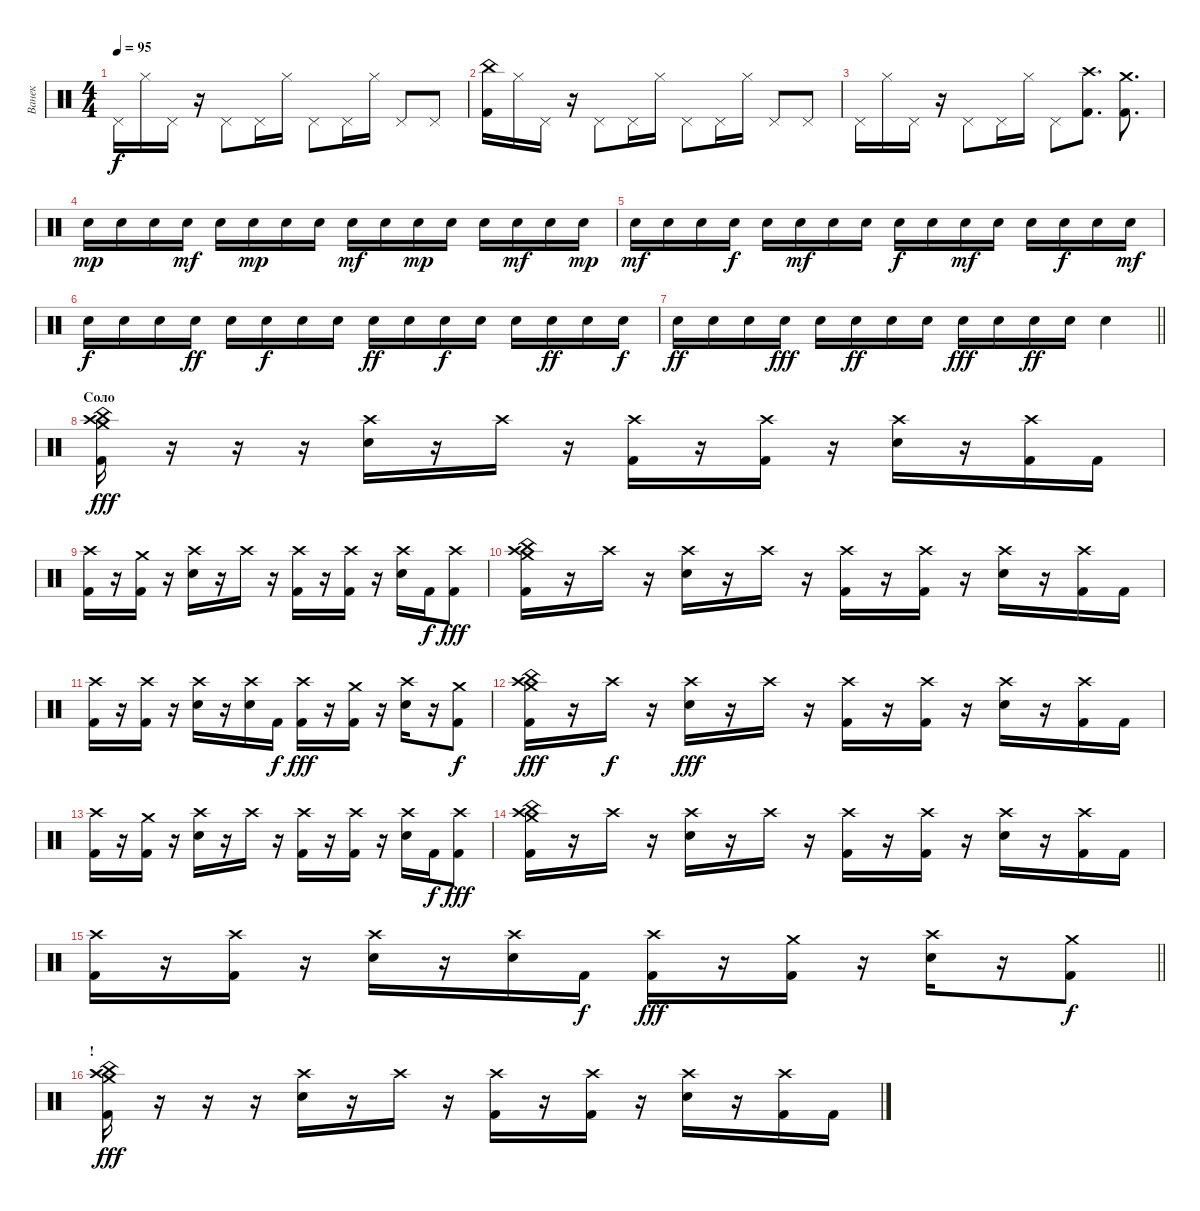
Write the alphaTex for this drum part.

\track ("Ванек" "Ванек") {instrument percussion}
\staff {score}
\articulation defaults
\ts (4 4)
\tempo 95
\clef neutral
\ks c "Pedal Hi-Hat (hit)".16{dy f} "Hi-Hat (closed)".16 "Pedal Hi-Hat (hit)".16
r.16 "Pedal Hi-Hat (hit)".8 "Pedal Hi-Hat (hit)".16 "Hi-Hat (closed)".16 "Pedal Hi-Hat (hit)".8 "Pedal Hi-Hat (hit)".16 "Hi-Hat (closed)".16 "Pedal Hi-Hat (hit)".8 "Pedal Hi-Hat (hit)".8 |
("China (hit)" "Kick (hit) 2").16 "Hi-Hat (closed)".16 "Pedal Hi-Hat (hit)".16 r.16 "Pedal Hi-Hat (hit)".8 "Pedal Hi-Hat (hit)".16 "Hi-Hat (closed)".16 "Pedal Hi-Hat (hit)".8 "Pedal Hi-Hat (hit)".16 "Hi-Hat (closed)".16 "Pedal Hi-Hat (hit)".8 "Pedal Hi-Hat (hit)".8 |
"Pedal Hi-Hat (hit)".16 "Hi-Hat (closed)".16 "Pedal Hi-Hat (hit)".16 r.16 "Pedal Hi-Hat (hit)".8 "Pedal Hi-Hat (hit)".16 "Hi-Hat (closed)".16 "Pedal Hi-Hat (hit)".8 ("Crash high (hit)" "Kick (hit) 2").8{d} ("Crash medium (hit)" "Kick (hit) 2").8{d} |
"Snare (hit) 2".16{dy mp} "Snare (hit) 2".16 "Snare (hit) 2".16 "Snare (hit) 2".16{dy mf} "Snare (hit) 2".16 "Snare (hit) 2".16{dy mp} "Snare (hit) 2".16 "Snare (hit) 2".16 "Snare (hit) 2".16{dy mf} "Snare (hit) 2".16 "Snare (hit) 2".16{dy mp} "Snare (hit) 2".16 "Snare (hit) 2".16 "Snare (hit) 2".16{dy mf} "Snare (hit) 2".16 "Snare (hit) 2".16{dy mp} |
"Snare (hit) 2".16{dy mf} "Snare (hit) 2".16 "Snare (hit) 2".16 "Snare (hit) 2".16{dy f} "Snare (hit) 2".16 "Snare (hit) 2".16{dy mf} "Snare (hit) 2".16 "Snare (hit) 2".16 "Snare (hit) 2".16{dy f} "Snare (hit) 2".16 "Snare (hit) 2".16{dy mf} "Snare (hit) 2".16 "Snare (hit) 2".16 "Snare (hit) 2".16{dy f} "Snare (hit) 2".16 "Snare (hit) 2".16{dy mf} |
"Snare (hit) 2".16{dy f} "Snare (hit) 2".16 "Snare (hit) 2".16 "Snare (hit) 2".16{dy ff} "Snare (hit) 2".16 "Snare (hit) 2".16{dy f} "Snare (hit) 2".16 "Snare (hit) 2".16 "Snare (hit) 2".16{dy ff} "Snare (hit) 2".16 "Snare (hit) 2".16{dy f} "Snare (hit) 2".16 "Snare (hit) 2".16 "Snare (hit) 2".16{dy ff} "Snare (hit) 2".16 "Snare (hit) 2".16{dy f} |
\barLineRight lightlight "Snare (hit) 2".16{dy ff} "Snare (hit) 2".16 "Snare (hit) 2".16 "Snare (hit) 2".16{dy fff} "Snare (hit) 2".16 "Snare (hit) 2".16{dy ff} "Snare (hit) 2".16 "Snare (hit) 2".16 "Snare (hit) 2".16{dy fff} "Snare (hit) 2".16 "Snare (hit) 2".16{dy ff} "Snare (hit) 2".16 "Snare (hit) 2".4
|
\section ("" "Соло")
("Crash high (hit)" "Crash medium (hit)" "China (hit)" "Kick (hit) 2").16{dy fff} r.16 r.16 r.16 ("Crash high (hit)" "Snare (hit) 2").16 r.16 "Crash high (hit)".16 r.16 ("Crash high (hit)" "Kick (hit) 2").16 r.16 ("Crash high (hit)" "Kick (hit) 2").16 r.16 ("Crash high (hit)" "Snare (hit) 2").16 r.16 ("Crash high (hit)" "Kick (hit) 2").16 "Kick (hit) 2".16 |
("Crash high (hit)" "Kick (hit) 2").16 r.16 ("Crash medium (hit)" "Kick (hit) 2").16 r.16 ("Crash high (hit)" "Snare (hit) 2").16 r.16 "Crash high (hit)".16 r.16 ("Crash high (hit)" "Kick (hit) 2").16 r.16 ("Crash high (hit)" "Kick (hit) 2").16 r.16 ("Crash high (hit)" "Snare (hit) 2").16 "Kick (hit) 2".16{dy f} ("Crash high (hit)" "Kick (hit) 2").8{dy fff} |
("Crash high (hit)" "Crash medium (hit)" "China (hit)" "Kick (hit) 2").16 r.16 "Crash high (hit)".16 r.16 ("Crash high (hit)" "Snare (hit) 2").16 r.16 "Crash high (hit)".16 r.16 ("Crash high (hit)" "Kick (hit) 2").16 r.16 ("Crash high (hit)" "Kick (hit) 2").16 r.16 ("Crash high (hit)" "Snare (hit) 2").16 r.16 ("Crash high (hit)" "Kick (hit) 2").16 "Kick (hit) 2".16 |
("Crash high (hit)" "Kick (hit) 2").16 r.16 ("Crash high (hit)" "Kick (hit) 2").16 r.16 ("Crash high (hit)" "Snare (hit) 2").16 r.16 ("Crash high (hit)" "Snare (hit) 2").16 "Kick (hit) 2".16{dy f} ("Crash high (hit)" "Kick (hit) 2").16{dy fff} r.16 ("Crash medium (hit)" "Kick (hit) 2").16 r.16 ("Crash high (hit)" "Snare (hit) 2").16 r.16 ("Crash medium (hit)" "Kick (hit) 2").8{dy f} |
("Crash high (hit)" "Crash medium (hit)" "China (hit)" "Kick (hit) 2").16{dy fff} r.16 "Crash high (hit)".16{dy f} r.16 ("Crash high (hit)" "Snare (hit) 2").16{dy fff} r.16 "Crash high (hit)".16 r.16 ("Crash high (hit)" "Kick (hit) 2").16 r.16 ("Crash high (hit)" "Kick (hit) 2").16 r.16 ("Crash high (hit)" "Snare (hit) 2").16 r.16 ("Crash high (hit)" "Kick (hit) 2").16 "Kick (hit) 2".16 |
("Crash high (hit)" "Kick (hit) 2").16 r.16 ("Crash medium (hit)" "Kick (hit) 2").16 r.16 ("Crash high (hit)" "Snare (hit) 2").16 r.16 "Crash high (hit)".16 r.16 ("Crash high (hit)" "Kick (hit) 2").16 r.16 ("Crash high (hit)" "Kick (hit) 2").16 r.16 ("Crash high (hit)" "Snare (hit) 2").16 "Kick (hit) 2".16{dy f} ("Crash high (hit)" "Kick (hit) 2").8{dy fff} |
("Crash high (hit)" "Crash medium (hit)" "China (hit)" "Kick (hit) 2").16 r.16 "Crash high (hit)".16 r.16 ("Crash high (hit)" "Snare (hit) 2").16 r.16 "Crash high (hit)".16 r.16 ("Crash high (hit)" "Kick (hit) 2").16 r.16 ("Crash high (hit)" "Kick (hit) 2").16 r.16 ("Crash high (hit)" "Snare (hit) 2").16 r.16 ("Crash high (hit)" "Kick (hit) 2").16 "Kick (hit) 2".16 |
\barLineRight lightlight
("Crash high (hit)" "Kick (hit) 2").16 r.16 ("Crash high (hit)" "Kick (hit) 2").16 r.16 ("Crash high (hit)" "Snare (hit) 2").16 r.16 ("Crash high (hit)" "Snare (hit) 2").16 "Kick (hit) 2".16{dy f} ("Crash high (hit)" "Kick (hit) 2").16{dy fff} r.16 ("Crash medium (hit)" "Kick (hit) 2").16 r.16 ("Crash high (hit)" "Snare (hit) 2").16 r.16 ("Crash medium (hit)" "Kick (hit) 2").8{dy f} |
\section ("" "!")
("Crash high (hit)" "Crash medium (hit)" "China (hit)" "Kick (hit) 2").16{dy fff} r.16 r.16 r.16 ("Crash high (hit)" "Snare (hit) 2").16 r.16 "Crash high (hit)".16 r.16 ("Crash high (hit)" "Kick (hit) 2").16 r.16 ("Crash high (hit)" "Kick (hit) 2").16 r.16 ("Crash high (hit)" "Snare (hit) 2").16 r.16 ("Crash high (hit)" "Kick (hit) 2").16 "Kick (hit) 2".16
